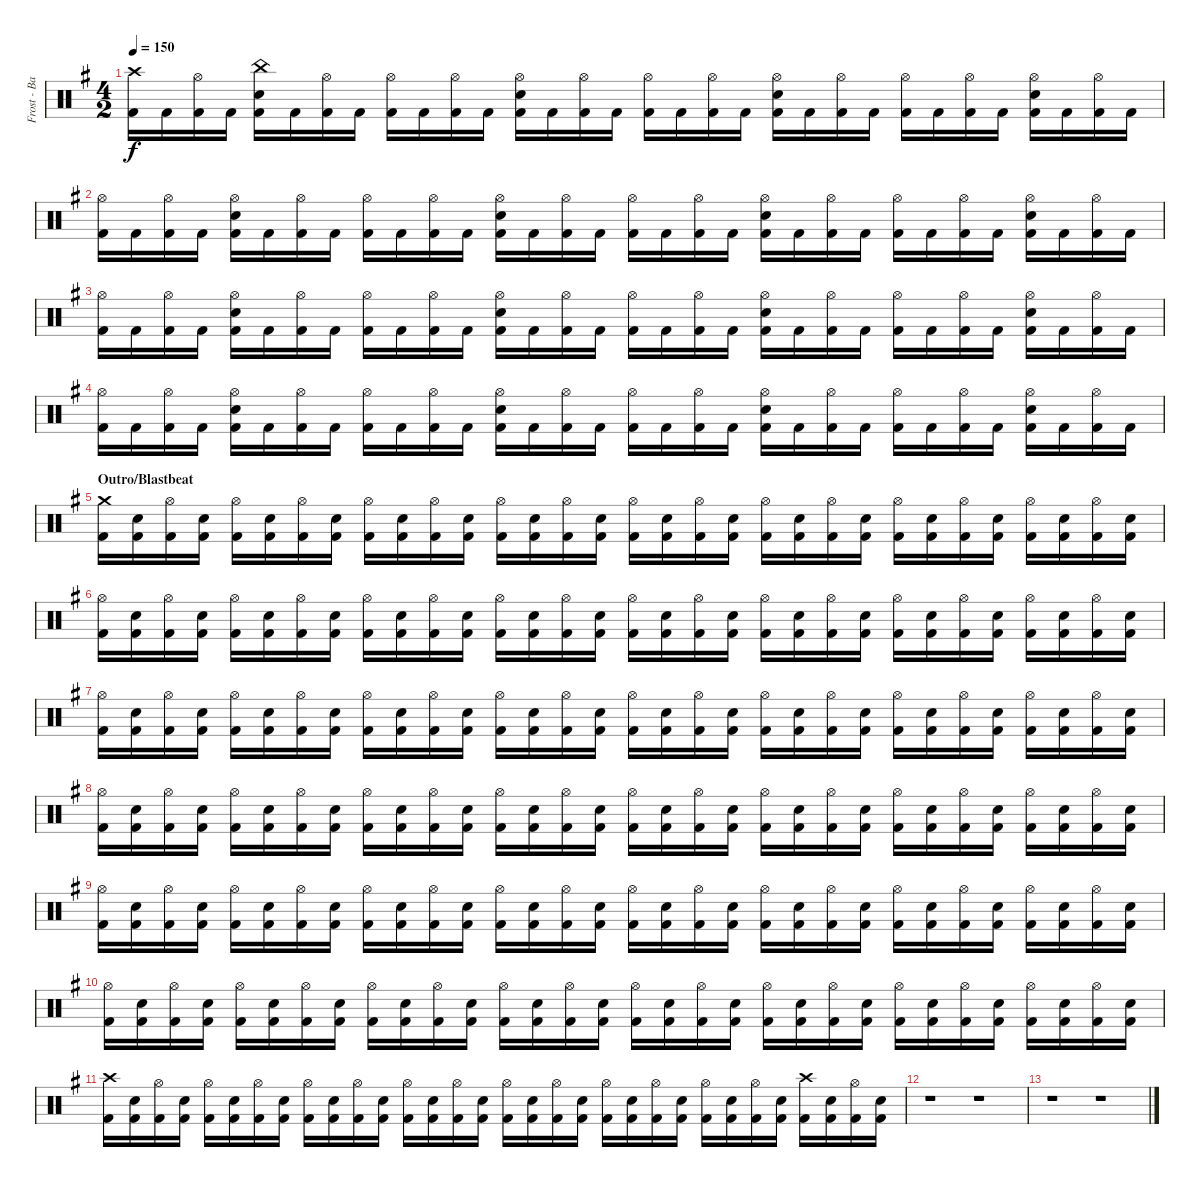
\track ("Frost - Battery" "Frost - Ba") {instrument percussion}
\staff {score}
\articulation defaults
\ts (4 2)
\tempo 150
\clef neutral
\ks eminor
("Kick (hit) 2" "Crash high (hit)").16{dy f} "Kick (hit) 2".16 ("Kick (hit) 2" "Hi-Hat (open)").16 "Kick (hit) 2".16 ("Kick (hit) 2" "China (hit)" "Electric Snare (hit)").16 "Kick (hit) 2".16 ("Kick (hit) 2" "Hi-Hat (open)").16 "Kick (hit) 2".16 ("Kick (hit) 2" "Hi-Hat (open)").16 "Kick (hit) 2".16 ("Kick (hit) 2" "Hi-Hat (open)").16 "Kick (hit) 2".16 ("Kick (hit) 2" "Hi-Hat (open)" "Electric Snare (hit)").16 "Kick (hit) 2".16 ("Kick (hit) 2" "Hi-Hat (open)").16 "Kick (hit) 2".16 ("Kick (hit) 2" "Hi-Hat (open)").16 "Kick (hit) 2".16 ("Kick (hit) 2" "Hi-Hat (open)").16 "Kick (hit) 2".16 ("Kick (hit) 2" "Hi-Hat (open)" "Electric Snare (hit)").16 "Kick (hit) 2".16 ("Kick (hit) 2" "Hi-Hat (open)").16 "Kick (hit) 2".16 ("Kick (hit) 2" "Hi-Hat (open)").16 "Kick (hit) 2".16 ("Kick (hit) 2" "Hi-Hat (open)").16 "Kick (hit) 2".16 ("Kick (hit) 2" "Hi-Hat (open)" "Electric Snare (hit)").16 "Kick (hit) 2".16 ("Kick (hit) 2" "Hi-Hat (open)").16 "Kick (hit) 2".16 |
("Kick (hit) 2" "Hi-Hat (open)").16 "Kick (hit) 2".16 ("Kick (hit) 2" "Hi-Hat (open)").16 "Kick (hit) 2".16 ("Kick (hit) 2" "Hi-Hat (open)" "Electric Snare (hit)").16 "Kick (hit) 2".16 ("Kick (hit) 2" "Hi-Hat (open)").16 "Kick (hit) 2".16 ("Kick (hit) 2" "Hi-Hat (open)").16 "Kick (hit) 2".16 ("Kick (hit) 2" "Hi-Hat (open)").16 "Kick (hit) 2".16 ("Kick (hit) 2" "Hi-Hat (open)" "Electric Snare (hit)").16 "Kick (hit) 2".16 ("Kick (hit) 2" "Hi-Hat (open)").16 "Kick (hit) 2".16 ("Kick (hit) 2" "Hi-Hat (open)").16 "Kick (hit) 2".16 ("Kick (hit) 2" "Hi-Hat (open)").16 "Kick (hit) 2".16 ("Kick (hit) 2" "Hi-Hat (open)" "Electric Snare (hit)").16 "Kick (hit) 2".16 ("Kick (hit) 2" "Hi-Hat (open)").16 "Kick (hit) 2".16 ("Kick (hit) 2" "Hi-Hat (open)").16 "Kick (hit) 2".16 ("Kick (hit) 2" "Hi-Hat (open)").16 "Kick (hit) 2".16 ("Kick (hit) 2" "Hi-Hat (open)" "Electric Snare (hit)").16 "Kick (hit) 2".16 ("Kick (hit) 2" "Hi-Hat (open)").16 "Kick (hit) 2".16 |
("Kick (hit) 2" "Hi-Hat (open)").16 "Kick (hit) 2".16 ("Kick (hit) 2" "Hi-Hat (open)").16 "Kick (hit) 2".16 ("Kick (hit) 2" "Hi-Hat (open)" "Electric Snare (hit)").16 "Kick (hit) 2".16 ("Kick (hit) 2" "Hi-Hat (open)").16 "Kick (hit) 2".16 ("Kick (hit) 2" "Hi-Hat (open)").16 "Kick (hit) 2".16 ("Kick (hit) 2" "Hi-Hat (open)").16 "Kick (hit) 2".16 ("Kick (hit) 2" "Hi-Hat (open)" "Electric Snare (hit)").16 "Kick (hit) 2".16 ("Kick (hit) 2" "Hi-Hat (open)").16 "Kick (hit) 2".16 ("Kick (hit) 2" "Hi-Hat (open)").16 "Kick (hit) 2".16 ("Kick (hit) 2" "Hi-Hat (open)").16 "Kick (hit) 2".16 ("Kick (hit) 2" "Hi-Hat (open)" "Electric Snare (hit)").16 "Kick (hit) 2".16 ("Kick (hit) 2" "Hi-Hat (open)").16 "Kick (hit) 2".16 ("Kick (hit) 2" "Hi-Hat (open)").16 "Kick (hit) 2".16 ("Kick (hit) 2" "Hi-Hat (open)").16 "Kick (hit) 2".16 ("Kick (hit) 2" "Hi-Hat (open)" "Electric Snare (hit)").16 "Kick (hit) 2".16 ("Kick (hit) 2" "Hi-Hat (open)").16 "Kick (hit) 2".16 |
("Kick (hit) 2" "Hi-Hat (open)").16 "Kick (hit) 2".16 ("Kick (hit) 2" "Hi-Hat (open)").16 "Kick (hit) 2".16 ("Kick (hit) 2" "Hi-Hat (open)" "Electric Snare (hit)").16 "Kick (hit) 2".16 ("Kick (hit) 2" "Hi-Hat (open)").16 "Kick (hit) 2".16 ("Kick (hit) 2" "Hi-Hat (open)").16 "Kick (hit) 2".16 ("Kick (hit) 2" "Hi-Hat (open)").16 "Kick (hit) 2".16 ("Kick (hit) 2" "Hi-Hat (open)" "Electric Snare (hit)").16 "Kick (hit) 2".16 ("Kick (hit) 2" "Hi-Hat (open)").16 "Kick (hit) 2".16 ("Kick (hit) 2" "Hi-Hat (open)").16 "Kick (hit) 2".16 ("Kick (hit) 2" "Hi-Hat (open)").16 "Kick (hit) 2".16 ("Kick (hit) 2" "Hi-Hat (open)" "Electric Snare (hit)").16 "Kick (hit) 2".16 ("Kick (hit) 2" "Hi-Hat (open)").16 "Kick (hit) 2".16 ("Kick (hit) 2" "Hi-Hat (open)").16 "Kick (hit) 2".16 ("Kick (hit) 2" "Hi-Hat (open)").16 "Kick (hit) 2".16 ("Kick (hit) 2" "Hi-Hat (open)" "Electric Snare (hit)").16 "Kick (hit) 2".16 ("Kick (hit) 2" "Hi-Hat (open)").16 "Kick (hit) 2".16 |
\section ("" "Outro/Blastbeat")
("Kick (hit) 2" "Crash medium (hit)").16 ("Kick (hit) 2" "Electric Snare (hit)").16 ("Kick (hit) 2" "Hi-Hat (open)").16 ("Kick (hit) 2" "Electric Snare (hit)").16 ("Kick (hit) 2" "Hi-Hat (open)").16 ("Kick (hit) 2" "Electric Snare (hit)").16 ("Kick (hit) 2" "Hi-Hat (open)").16 ("Kick (hit) 2" "Electric Snare (hit)").16 ("Kick (hit) 2" "Hi-Hat (open)").16 ("Kick (hit) 2" "Electric Snare (hit)").16 ("Kick (hit) 2" "Hi-Hat (open)").16 ("Kick (hit) 2" "Electric Snare (hit)").16 ("Kick (hit) 2" "Hi-Hat (open)").16 ("Kick (hit) 2" "Electric Snare (hit)").16 ("Kick (hit) 2" "Hi-Hat (open)").16 ("Kick (hit) 2" "Electric Snare (hit)").16 ("Kick (hit) 2" "Hi-Hat (open)").16 ("Kick (hit) 2" "Electric Snare (hit)").16 ("Kick (hit) 2" "Hi-Hat (open)").16 ("Kick (hit) 2" "Electric Snare (hit)").16 ("Kick (hit) 2" "Hi-Hat (open)").16 ("Kick (hit) 2" "Electric Snare (hit)").16 ("Kick (hit) 2" "Hi-Hat (open)").16 ("Kick (hit) 2" "Electric Snare (hit)").16 ("Kick (hit) 2" "Hi-Hat (open)").16 ("Kick (hit) 2" "Electric Snare (hit)").16 ("Kick (hit) 2" "Hi-Hat (open)").16 ("Kick (hit) 2" "Electric Snare (hit)").16 ("Kick (hit) 2" "Hi-Hat (open)").16 ("Kick (hit) 2" "Electric Snare (hit)").16 ("Kick (hit) 2" "Hi-Hat (open)").16 ("Kick (hit) 2" "Electric Snare (hit)").16 |
("Kick (hit) 2" "Hi-Hat (open)").16 ("Kick (hit) 2" "Electric Snare (hit)").16 ("Kick (hit) 2" "Hi-Hat (open)").16 ("Kick (hit) 2" "Electric Snare (hit)").16 ("Kick (hit) 2" "Hi-Hat (open)").16 ("Kick (hit) 2" "Electric Snare (hit)").16 ("Kick (hit) 2" "Hi-Hat (open)").16 ("Kick (hit) 2" "Electric Snare (hit)").16 ("Kick (hit) 2" "Hi-Hat (open)").16 ("Kick (hit) 2" "Electric Snare (hit)").16 ("Kick (hit) 2" "Hi-Hat (open)").16 ("Kick (hit) 2" "Electric Snare (hit)").16 ("Kick (hit) 2" "Hi-Hat (open)").16 ("Kick (hit) 2" "Electric Snare (hit)").16 ("Kick (hit) 2" "Hi-Hat (open)").16 ("Kick (hit) 2" "Electric Snare (hit)").16 ("Kick (hit) 2" "Hi-Hat (open)").16 ("Kick (hit) 2" "Electric Snare (hit)").16 ("Kick (hit) 2" "Hi-Hat (open)").16 ("Kick (hit) 2" "Electric Snare (hit)").16 ("Kick (hit) 2" "Hi-Hat (open)").16 ("Kick (hit) 2" "Electric Snare (hit)").16 ("Kick (hit) 2" "Hi-Hat (open)").16 ("Kick (hit) 2" "Electric Snare (hit)").16 ("Kick (hit) 2" "Hi-Hat (open)").16 ("Kick (hit) 2" "Electric Snare (hit)").16 ("Kick (hit) 2" "Hi-Hat (open)").16 ("Kick (hit) 2" "Electric Snare (hit)").16 ("Kick (hit) 2" "Hi-Hat (open)").16 ("Kick (hit) 2" "Electric Snare (hit)").16 ("Kick (hit) 2" "Hi-Hat (open)").16 ("Kick (hit) 2" "Electric Snare (hit)").16 |
("Kick (hit) 2" "Hi-Hat (open)").16 ("Kick (hit) 2" "Electric Snare (hit)").16 ("Kick (hit) 2" "Hi-Hat (open)").16 ("Kick (hit) 2" "Electric Snare (hit)").16 ("Kick (hit) 2" "Hi-Hat (open)").16 ("Kick (hit) 2" "Electric Snare (hit)").16 ("Kick (hit) 2" "Hi-Hat (open)").16 ("Kick (hit) 2" "Electric Snare (hit)").16 ("Kick (hit) 2" "Hi-Hat (open)").16 ("Kick (hit) 2" "Electric Snare (hit)").16 ("Kick (hit) 2" "Hi-Hat (open)").16 ("Kick (hit) 2" "Electric Snare (hit)").16 ("Kick (hit) 2" "Hi-Hat (open)").16 ("Kick (hit) 2" "Electric Snare (hit)").16 ("Kick (hit) 2" "Hi-Hat (open)").16 ("Kick (hit) 2" "Electric Snare (hit)").16 ("Kick (hit) 2" "Hi-Hat (open)").16 ("Kick (hit) 2" "Electric Snare (hit)").16 ("Kick (hit) 2" "Hi-Hat (open)").16 ("Kick (hit) 2" "Electric Snare (hit)").16 ("Kick (hit) 2" "Hi-Hat (open)").16 ("Kick (hit) 2" "Electric Snare (hit)").16 ("Kick (hit) 2" "Hi-Hat (open)").16 ("Kick (hit) 2" "Electric Snare (hit)").16 ("Kick (hit) 2" "Hi-Hat (open)").16 ("Kick (hit) 2" "Electric Snare (hit)").16 ("Kick (hit) 2" "Hi-Hat (open)").16 ("Kick (hit) 2" "Electric Snare (hit)").16 ("Kick (hit) 2" "Hi-Hat (open)").16 ("Kick (hit) 2" "Electric Snare (hit)").16 ("Kick (hit) 2" "Hi-Hat (open)").16 ("Kick (hit) 2" "Electric Snare (hit)").16 |
("Kick (hit) 2" "Hi-Hat (open)").16 ("Kick (hit) 2" "Electric Snare (hit)").16 ("Kick (hit) 2" "Hi-Hat (open)").16 ("Kick (hit) 2" "Electric Snare (hit)").16 ("Kick (hit) 2" "Hi-Hat (open)").16 ("Kick (hit) 2" "Electric Snare (hit)").16 ("Kick (hit) 2" "Hi-Hat (open)").16 ("Kick (hit) 2" "Electric Snare (hit)").16 ("Kick (hit) 2" "Hi-Hat (open)").16 ("Kick (hit) 2" "Electric Snare (hit)").16 ("Kick (hit) 2" "Hi-Hat (open)").16 ("Kick (hit) 2" "Electric Snare (hit)").16 ("Kick (hit) 2" "Hi-Hat (open)").16 ("Kick (hit) 2" "Electric Snare (hit)").16 ("Kick (hit) 2" "Hi-Hat (open)").16 ("Kick (hit) 2" "Electric Snare (hit)").16 ("Kick (hit) 2" "Hi-Hat (open)").16 ("Kick (hit) 2" "Electric Snare (hit)").16 ("Kick (hit) 2" "Hi-Hat (open)").16 ("Kick (hit) 2" "Electric Snare (hit)").16 ("Kick (hit) 2" "Hi-Hat (open)").16 ("Kick (hit) 2" "Electric Snare (hit)").16 ("Kick (hit) 2" "Hi-Hat (open)").16 ("Kick (hit) 2" "Electric Snare (hit)").16 ("Kick (hit) 2" "Hi-Hat (open)").16 ("Kick (hit) 2" "Electric Snare (hit)").16 ("Kick (hit) 2" "Hi-Hat (open)").16 ("Kick (hit) 2" "Electric Snare (hit)").16 ("Kick (hit) 2" "Hi-Hat (open)").16 ("Kick (hit) 2" "Electric Snare (hit)").16 ("Kick (hit) 2" "Hi-Hat (open)").16 ("Kick (hit) 2" "Electric Snare (hit)").16 |
("Kick (hit) 2" "Hi-Hat (open)").16 ("Kick (hit) 2" "Electric Snare (hit)").16 ("Kick (hit) 2" "Hi-Hat (open)").16 ("Kick (hit) 2" "Electric Snare (hit)").16 ("Kick (hit) 2" "Hi-Hat (open)").16 ("Kick (hit) 2" "Electric Snare (hit)").16 ("Kick (hit) 2" "Hi-Hat (open)").16 ("Kick (hit) 2" "Electric Snare (hit)").16 ("Kick (hit) 2" "Hi-Hat (open)").16 ("Kick (hit) 2" "Electric Snare (hit)").16 ("Kick (hit) 2" "Hi-Hat (open)").16 ("Kick (hit) 2" "Electric Snare (hit)").16 ("Kick (hit) 2" "Hi-Hat (open)").16 ("Kick (hit) 2" "Electric Snare (hit)").16 ("Kick (hit) 2" "Hi-Hat (open)").16 ("Kick (hit) 2" "Electric Snare (hit)").16 ("Kick (hit) 2" "Hi-Hat (open)").16 ("Kick (hit) 2" "Electric Snare (hit)").16 ("Kick (hit) 2" "Hi-Hat (open)").16 ("Kick (hit) 2" "Electric Snare (hit)").16 ("Kick (hit) 2" "Hi-Hat (open)").16 ("Kick (hit) 2" "Electric Snare (hit)").16 ("Kick (hit) 2" "Hi-Hat (open)").16 ("Kick (hit) 2" "Electric Snare (hit)").16 ("Kick (hit) 2" "Hi-Hat (open)").16 ("Kick (hit) 2" "Electric Snare (hit)").16 ("Kick (hit) 2" "Hi-Hat (open)").16 ("Kick (hit) 2" "Electric Snare (hit)").16 ("Kick (hit) 2" "Hi-Hat (open)").16 ("Kick (hit) 2" "Electric Snare (hit)").16 ("Kick (hit) 2" "Hi-Hat (open)").16 ("Kick (hit) 2" "Electric Snare (hit)").16 |
("Kick (hit) 2" "Hi-Hat (open)").16 ("Kick (hit) 2" "Electric Snare (hit)").16 ("Kick (hit) 2" "Hi-Hat (open)").16 ("Kick (hit) 2" "Electric Snare (hit)").16 ("Kick (hit) 2" "Hi-Hat (open)").16 ("Kick (hit) 2" "Electric Snare (hit)").16 ("Kick (hit) 2" "Hi-Hat (open)").16 ("Kick (hit) 2" "Electric Snare (hit)").16 ("Kick (hit) 2" "Hi-Hat (open)").16 ("Kick (hit) 2" "Electric Snare (hit)").16 ("Kick (hit) 2" "Hi-Hat (open)").16 ("Kick (hit) 2" "Electric Snare (hit)").16 ("Kick (hit) 2" "Hi-Hat (open)").16 ("Kick (hit) 2" "Electric Snare (hit)").16 ("Kick (hit) 2" "Hi-Hat (open)").16 ("Kick (hit) 2" "Electric Snare (hit)").16 ("Kick (hit) 2" "Hi-Hat (open)").16 ("Kick (hit) 2" "Electric Snare (hit)").16 ("Kick (hit) 2" "Hi-Hat (open)").16 ("Kick (hit) 2" "Electric Snare (hit)").16 ("Kick (hit) 2" "Hi-Hat (open)").16 ("Kick (hit) 2" "Electric Snare (hit)").16 ("Kick (hit) 2" "Hi-Hat (open)").16 ("Kick (hit) 2" "Electric Snare (hit)").16 ("Kick (hit) 2" "Hi-Hat (open)").16 ("Kick (hit) 2" "Electric Snare (hit)").16 ("Kick (hit) 2" "Hi-Hat (open)").16 ("Kick (hit) 2" "Electric Snare (hit)").16 ("Kick (hit) 2" "Hi-Hat (open)").16 ("Kick (hit) 2" "Electric Snare (hit)").16 ("Kick (hit) 2" "Hi-Hat (open)").16 ("Kick (hit) 2" "Electric Snare (hit)").16 |
("Kick (hit) 2" "Crash high (hit)").16 ("Kick (hit) 2" "Electric Snare (hit)").16 ("Kick (hit) 2" "Hi-Hat (open)").16 ("Kick (hit) 2" "Electric Snare (hit)").16 ("Kick (hit) 2" "Hi-Hat (open)").16 ("Kick (hit) 2" "Electric Snare (hit)").16 ("Kick (hit) 2" "Hi-Hat (open)").16 ("Kick (hit) 2" "Electric Snare (hit)").16 ("Kick (hit) 2" "Hi-Hat (open)").16 ("Kick (hit) 2" "Electric Snare (hit)").16 ("Kick (hit) 2" "Hi-Hat (open)").16 ("Kick (hit) 2" "Electric Snare (hit)").16 ("Kick (hit) 2" "Hi-Hat (open)").16 ("Kick (hit) 2" "Electric Snare (hit)").16 ("Kick (hit) 2" "Hi-Hat (open)").16 ("Kick (hit) 2" "Electric Snare (hit)").16 ("Kick (hit) 2" "Hi-Hat (open)").16 ("Kick (hit) 2" "Electric Snare (hit)").16 ("Kick (hit) 2" "Hi-Hat (open)").16 ("Kick (hit) 2" "Electric Snare (hit)").16 ("Kick (hit) 2" "Hi-Hat (open)").16 ("Kick (hit) 2" "Electric Snare (hit)").16 ("Kick (hit) 2" "Hi-Hat (open)").16 ("Kick (hit) 2" "Electric Snare (hit)").16 ("Kick (hit) 2" "Hi-Hat (open)").16 ("Kick (hit) 2" "Electric Snare (hit)").16 ("Kick (hit) 2" "Hi-Hat (open)").16 ("Kick (hit) 2" "Electric Snare (hit)").16 ("Kick (hit) 2" "Crash high (hit)").16 ("Kick (hit) 2" "Electric Snare (hit)").16 ("Kick (hit) 2" "Hi-Hat (open)").16 ("Kick (hit) 2" "Electric Snare (hit)").16 |
r.1 r.1 |
r.1 r.1
